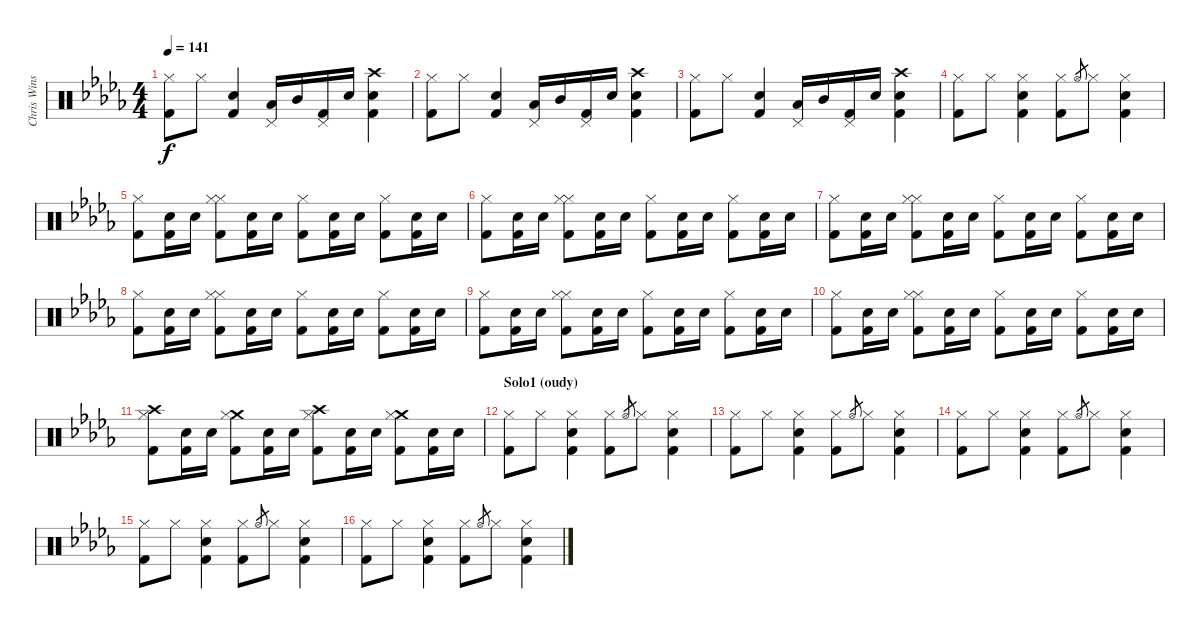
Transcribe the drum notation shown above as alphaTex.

\track ("Chris Winship (Drums)" "Chris Wins") {instrument percussion}
\staff {score}
\articulation defaults
\ts (4 4)
\tempo 141
\clef neutral
\ks db
("Hi-Hat (closed)" "Kick (hit) 2").8{dy f} "Hi-Hat (closed)".8 ("Electric Snare (hit)" "Kick (hit) 2").4 ("Pedal Hi-Hat (hit)" "Low Tom (hit)").16 "Mid Tom (hit)".16 ("Pedal Hi-Hat (hit)" "Kick (hit) 2").16 "Electric Snare (hit)".16 ("Crash high (hit)" "Kick (hit) 2" "Electric Snare (hit)").4 |
("Hi-Hat (closed)" "Kick (hit) 2").8 "Hi-Hat (closed)".8 ("Electric Snare (hit)" "Kick (hit) 2").4 ("Pedal Hi-Hat (hit)" "Low Tom (hit)").16 "Mid Tom (hit)".16 ("Pedal Hi-Hat (hit)" "Kick (hit) 2").16 "Electric Snare (hit)".16 ("Crash high (hit)" "Kick (hit) 2" "Electric Snare (hit)").4 |
("Hi-Hat (closed)" "Kick (hit) 2").8 "Hi-Hat (closed)".8 ("Electric Snare (hit)" "Kick (hit) 2").4 ("Pedal Hi-Hat (hit)" "Low Tom (hit)").16 "Mid Tom (hit)".16 ("Pedal Hi-Hat (hit)" "Kick (hit) 2").16 "Electric Snare (hit)".16 ("Crash high (hit)" "Kick (hit) 2" "Electric Snare (hit)").4 |
("Kick (hit) 2" "Hi-Hat (closed)").8 "Hi-Hat (closed)".8 ("Hi-Hat (closed)" "Kick (hit) 2" "Electric Snare (hit)").4 ("Kick (hit) 2" "Hi-Hat (closed)").8 "Hi-Hat (open)".8{gr} "Hi-Hat (closed)".8 ("Hi-Hat (closed)" "Kick (hit) 2" "Electric Snare (hit)").4 |
("Kick (hit) 2" "Hi-Hat (closed)").8 ("Kick (hit) 2" "Electric Snare (hit)").16 "Electric Snare (hit)".16 ("Hi-Hat (closed)" "Kick (hit) 2" "Hi-Hat (closed)").8 ("Kick (hit) 2" "Electric Snare (hit)").16 "Electric Snare (hit)".16 ("Kick (hit) 2" "Hi-Hat (closed)").8 ("Kick (hit) 2" "Electric Snare (hit)").16 "Electric Snare (hit)".16 ("Kick (hit) 2" "Hi-Hat (closed)").8 ("Kick (hit) 2" "Electric Snare (hit)").16 "Electric Snare (hit)".16 |
("Kick (hit) 2" "Hi-Hat (closed)").8 ("Kick (hit) 2" "Electric Snare (hit)").16 "Electric Snare (hit)".16 ("Hi-Hat (closed)" "Kick (hit) 2" "Hi-Hat (closed)").8 ("Kick (hit) 2" "Electric Snare (hit)").16 "Electric Snare (hit)".16 ("Kick (hit) 2" "Hi-Hat (closed)").8 ("Kick (hit) 2" "Electric Snare (hit)").16 "Electric Snare (hit)".16 ("Kick (hit) 2" "Hi-Hat (closed)").8 ("Kick (hit) 2" "Electric Snare (hit)").16 "Electric Snare (hit)".16 |
("Kick (hit) 2" "Hi-Hat (closed)").8 ("Kick (hit) 2" "Electric Snare (hit)").16 "Electric Snare (hit)".16 ("Hi-Hat (closed)" "Kick (hit) 2" "Hi-Hat (closed)").8 ("Kick (hit) 2" "Electric Snare (hit)").16 "Electric Snare (hit)".16 ("Kick (hit) 2" "Hi-Hat (closed)").8 ("Kick (hit) 2" "Electric Snare (hit)").16 "Electric Snare (hit)".16 ("Kick (hit) 2" "Hi-Hat (closed)").8 ("Kick (hit) 2" "Electric Snare (hit)").16 "Electric Snare (hit)".16 |
("Kick (hit) 2" "Hi-Hat (closed)").8 ("Kick (hit) 2" "Electric Snare (hit)").16 "Electric Snare (hit)".16 ("Hi-Hat (closed)" "Kick (hit) 2" "Hi-Hat (closed)").8 ("Kick (hit) 2" "Electric Snare (hit)").16 "Electric Snare (hit)".16 ("Kick (hit) 2" "Hi-Hat (closed)").8 ("Kick (hit) 2" "Electric Snare (hit)").16 "Electric Snare (hit)".16 ("Kick (hit) 2" "Hi-Hat (closed)").8 ("Kick (hit) 2" "Electric Snare (hit)").16 "Electric Snare (hit)".16 |
("Kick (hit) 2" "Hi-Hat (closed)").8 ("Kick (hit) 2" "Electric Snare (hit)").16 "Electric Snare (hit)".16 ("Hi-Hat (closed)" "Kick (hit) 2" "Hi-Hat (closed)").8 ("Kick (hit) 2" "Electric Snare (hit)").16 "Electric Snare (hit)".16 ("Kick (hit) 2" "Hi-Hat (closed)").8 ("Kick (hit) 2" "Electric Snare (hit)").16 "Electric Snare (hit)".16 ("Kick (hit) 2" "Hi-Hat (closed)").8 ("Kick (hit) 2" "Electric Snare (hit)").16 "Electric Snare (hit)".16 |
("Kick (hit) 2" "Hi-Hat (closed)").8 ("Kick (hit) 2" "Electric Snare (hit)").16 "Electric Snare (hit)".16 ("Hi-Hat (closed)" "Kick (hit) 2" "Hi-Hat (closed)").8 ("Kick (hit) 2" "Electric Snare (hit)").16 "Electric Snare (hit)".16 ("Kick (hit) 2" "Hi-Hat (closed)").8 ("Kick (hit) 2" "Electric Snare (hit)").16 "Electric Snare (hit)".16 ("Kick (hit) 2" "Hi-Hat (closed)").8 ("Kick (hit) 2" "Electric Snare (hit)").16 "Electric Snare (hit)".16 |
("Crash high (hit)" "Kick (hit) 2" "Hi-Hat (closed)").8 ("Kick (hit) 2" "Electric Snare (hit)").16 "Electric Snare (hit)".16 ("Crash medium (hit)" "Kick (hit) 2" "Hi-Hat (closed)").8 ("Kick (hit) 2" "Electric Snare (hit)").16 "Electric Snare (hit)".16 ("Crash high (hit)" "Kick (hit) 2" "Hi-Hat (closed)").8 ("Kick (hit) 2" "Electric Snare (hit)").16 "Electric Snare (hit)".16 ("Crash medium (hit)" "Kick (hit) 2" "Hi-Hat (closed)").8 ("Kick (hit) 2" "Electric Snare (hit)").16 "Electric Snare (hit)".16 |
\section ("" "Solo1 (oudy)")
("Kick (hit) 2" "Hi-Hat (closed)").8 "Hi-Hat (closed)".8 ("Hi-Hat (closed)" "Kick (hit) 2" "Electric Snare (hit)").4 ("Kick (hit) 2" "Hi-Hat (closed)").8 "Hi-Hat (open)".8{gr} "Hi-Hat (closed)".8 ("Hi-Hat (closed)" "Kick (hit) 2" "Electric Snare (hit)").4 |
("Kick (hit) 2" "Hi-Hat (closed)").8 "Hi-Hat (closed)".8 ("Hi-Hat (closed)" "Kick (hit) 2" "Electric Snare (hit)").4 ("Kick (hit) 2" "Hi-Hat (closed)").8 "Hi-Hat (open)".8{gr} "Hi-Hat (closed)".8 ("Hi-Hat (closed)" "Kick (hit) 2" "Electric Snare (hit)").4 |
("Kick (hit) 2" "Hi-Hat (closed)").8 "Hi-Hat (closed)".8 ("Hi-Hat (closed)" "Kick (hit) 2" "Electric Snare (hit)").4 ("Kick (hit) 2" "Hi-Hat (closed)").8 "Hi-Hat (open)".8{gr} "Hi-Hat (closed)".8 ("Hi-Hat (closed)" "Kick (hit) 2" "Electric Snare (hit)").4 |
("Kick (hit) 2" "Hi-Hat (closed)").8 "Hi-Hat (closed)".8 ("Hi-Hat (closed)" "Kick (hit) 2" "Electric Snare (hit)").4 ("Kick (hit) 2" "Hi-Hat (closed)").8 "Hi-Hat (open)".8{gr} "Hi-Hat (closed)".8 ("Hi-Hat (closed)" "Kick (hit) 2" "Electric Snare (hit)").4 |
("Kick (hit) 2" "Hi-Hat (closed)").8 "Hi-Hat (closed)".8 ("Hi-Hat (closed)" "Kick (hit) 2" "Electric Snare (hit)").4 ("Kick (hit) 2" "Hi-Hat (closed)").8 "Hi-Hat (open)".8{gr} "Hi-Hat (closed)".8 ("Hi-Hat (closed)" "Kick (hit) 2" "Electric Snare (hit)").4
